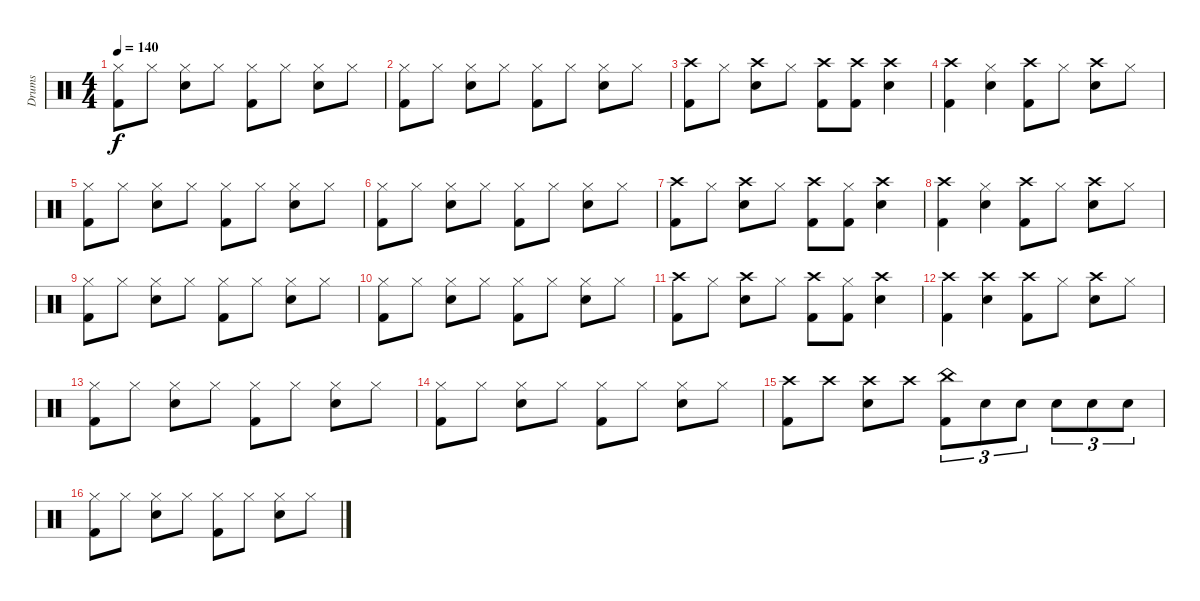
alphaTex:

\track ("Drums" "Drums") {instrument percussion}
\staff {score}
\articulation defaults
\ts (4 4)
\tempo 140
\clef neutral
\ks c
("Hi-Hat (closed)" "Kick (hit) 2").8{dy f} "Hi-Hat (closed)".8 ("Hi-Hat (closed)" "Electric Snare (hit)").8 "Hi-Hat (closed)".8 ("Hi-Hat (closed)" "Kick (hit) 2").8 "Hi-Hat (closed)".8 ("Hi-Hat (closed)" "Electric Snare (hit)").8 "Hi-Hat (closed)".8 |
("Hi-Hat (closed)" "Kick (hit) 2").8 "Hi-Hat (closed)".8 ("Hi-Hat (closed)" "Electric Snare (hit)").8 "Hi-Hat (closed)".8 ("Hi-Hat (closed)" "Kick (hit) 2").8 "Hi-Hat (closed)".8 ("Hi-Hat (closed)" "Electric Snare (hit)").8 "Hi-Hat (closed)".8 |
("Crash high (hit)" "Kick (hit) 2").8 "Hi-Hat (closed)".8 ("Crash high (hit)" "Electric Snare (hit)").8 "Hi-Hat (closed)".8 ("Crash high (hit)" "Kick (hit) 2").8 ("Crash high (hit)" "Kick (hit) 2").8 ("Crash high (hit)" "Electric Snare (hit)").4 |
("Crash high (hit)" "Kick (hit) 2").4 ("Hi-Hat (closed)" "Electric Snare (hit)").4 ("Crash high (hit)" "Kick (hit) 2").8 "Hi-Hat (closed)".8 ("Crash high (hit)" "Electric Snare (hit)").8 "Hi-Hat (closed)".8 |
("Hi-Hat (closed)" "Kick (hit) 2").8 "Hi-Hat (closed)".8 ("Hi-Hat (closed)" "Electric Snare (hit)").8 "Hi-Hat (closed)".8 ("Hi-Hat (closed)" "Kick (hit) 2").8 "Hi-Hat (closed)".8 ("Hi-Hat (closed)" "Electric Snare (hit)").8 "Hi-Hat (closed)".8 |
("Hi-Hat (closed)" "Kick (hit) 2").8 "Hi-Hat (closed)".8 ("Hi-Hat (closed)" "Electric Snare (hit)").8 "Hi-Hat (closed)".8 ("Hi-Hat (closed)" "Kick (hit) 2").8 "Hi-Hat (closed)".8 ("Hi-Hat (closed)" "Electric Snare (hit)").8 "Hi-Hat (closed)".8 |
("Crash high (hit)" "Kick (hit) 2").8 "Hi-Hat (closed)".8 ("Crash high (hit)" "Electric Snare (hit)").8 "Hi-Hat (closed)".8 ("Crash high (hit)" "Kick (hit) 2").8 ("Hi-Hat (closed)" "Kick (hit) 2").8 ("Crash high (hit)" "Electric Snare (hit)").4 |
("Crash high (hit)" "Kick (hit) 2").4 ("Hi-Hat (closed)" "Electric Snare (hit)").4 ("Crash high (hit)" "Kick (hit) 2").8 "Hi-Hat (closed)".8 ("Crash high (hit)" "Electric Snare (hit)").8 "Hi-Hat (closed)".8 |
("Hi-Hat (closed)" "Kick (hit) 2").8 "Hi-Hat (closed)".8 ("Hi-Hat (closed)" "Electric Snare (hit)").8 "Hi-Hat (closed)".8 ("Hi-Hat (closed)" "Kick (hit) 2").8 "Hi-Hat (closed)".8 ("Hi-Hat (closed)" "Electric Snare (hit)").8 "Hi-Hat (closed)".8 |
("Hi-Hat (closed)" "Kick (hit) 2").8 "Hi-Hat (closed)".8 ("Hi-Hat (closed)" "Electric Snare (hit)").8 "Hi-Hat (closed)".8 ("Hi-Hat (closed)" "Kick (hit) 2").8 "Hi-Hat (closed)".8 ("Hi-Hat (closed)" "Electric Snare (hit)").8 "Hi-Hat (closed)".8 |
("Crash high (hit)" "Kick (hit) 2").8 "Hi-Hat (closed)".8 ("Crash high (hit)" "Electric Snare (hit)").8 "Hi-Hat (closed)".8 ("Crash high (hit)" "Kick (hit) 2").8 ("Hi-Hat (closed)" "Kick (hit) 2").8 ("Crash high (hit)" "Electric Snare (hit)").4 |
("Crash high (hit)" "Kick (hit) 2").4 ("Crash high (hit)" "Electric Snare (hit)").4 ("Crash high (hit)" "Kick (hit) 2").8 "Hi-Hat (closed)".8 ("Crash high (hit)" "Electric Snare (hit)").8 "Hi-Hat (closed)".8 |
("Hi-Hat (closed)" "Kick (hit) 2").8 "Hi-Hat (closed)".8 ("Hi-Hat (closed)" "Electric Snare (hit)").8 "Hi-Hat (closed)".8 ("Hi-Hat (closed)" "Kick (hit) 2").8 "Hi-Hat (closed)".8 ("Hi-Hat (closed)" "Electric Snare (hit)").8 "Hi-Hat (closed)".8 |
("Hi-Hat (closed)" "Kick (hit) 2").8 "Hi-Hat (closed)".8 ("Hi-Hat (closed)" "Electric Snare (hit)").8 "Hi-Hat (closed)".8 ("Hi-Hat (closed)" "Kick (hit) 2").8 "Hi-Hat (closed)".8 ("Hi-Hat (closed)" "Electric Snare (hit)").8 "Hi-Hat (closed)".8 |
("Crash high (hit)" "Kick (hit) 2").8 "Crash high (hit)".8 ("Crash high (hit)" "Electric Snare (hit)").8 "Crash high (hit)".8 ("China (hit)" "Kick (hit) 2").8{tu (3 2)} "Electric Snare (hit)".8{tu (3 2)} "Electric Snare (hit)".8{tu (3 2)} "Electric Snare (hit)".8{tu (3 2)} "Electric Snare (hit)".8{tu (3 2)} "Electric Snare (hit)".8{tu (3 2)} |
("Hi-Hat (closed)" "Kick (hit) 2").8 "Hi-Hat (closed)".8 ("Hi-Hat (closed)" "Electric Snare (hit)").8 "Hi-Hat (closed)".8 ("Hi-Hat (closed)" "Kick (hit) 2").8 "Hi-Hat (closed)".8 ("Hi-Hat (closed)" "Electric Snare (hit)").8 "Hi-Hat (closed)".8
